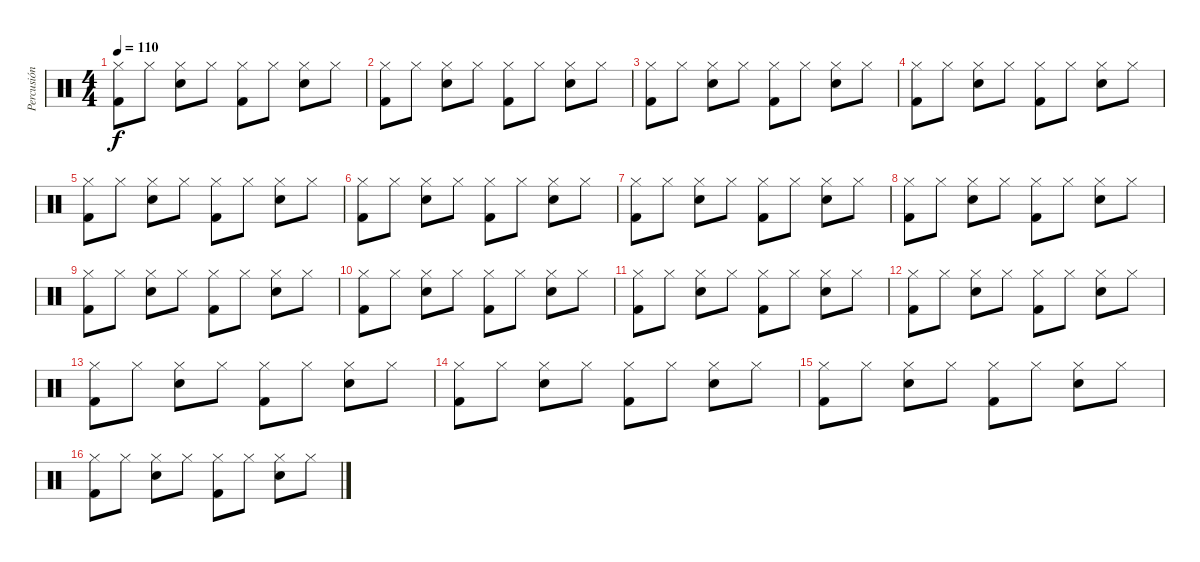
\track ("Percusión" "Percusión") {instrument percussion}
\staff {score}
\articulation defaults
\ts (4 4)
\tempo 110
\clef neutral
\ks c
("Kick (hit) 2" "Hi-Hat (closed)").8{dy f} "Hi-Hat (closed)".8 ("Snare (hit) 2" "Hi-Hat (closed)").8 "Hi-Hat (closed)".8 ("Kick (hit) 2" "Hi-Hat (closed)").8 "Hi-Hat (closed)".8 ("Snare (hit) 2" "Hi-Hat (closed)").8 "Hi-Hat (closed)".8 |
("Kick (hit) 2" "Hi-Hat (closed)").8 "Hi-Hat (closed)".8 ("Snare (hit) 2" "Hi-Hat (closed)").8 "Hi-Hat (closed)".8 ("Kick (hit) 2" "Hi-Hat (closed)").8 "Hi-Hat (closed)".8 ("Snare (hit) 2" "Hi-Hat (closed)").8 "Hi-Hat (closed)".8 |
("Kick (hit) 2" "Hi-Hat (closed)").8 "Hi-Hat (closed)".8 ("Snare (hit) 2" "Hi-Hat (closed)").8 "Hi-Hat (closed)".8 ("Kick (hit) 2" "Hi-Hat (closed)").8 "Hi-Hat (closed)".8 ("Snare (hit) 2" "Hi-Hat (closed)").8 "Hi-Hat (closed)".8 |
("Kick (hit) 2" "Hi-Hat (closed)").8 "Hi-Hat (closed)".8 ("Snare (hit) 2" "Hi-Hat (closed)").8 "Hi-Hat (closed)".8 ("Kick (hit) 2" "Hi-Hat (closed)").8 "Hi-Hat (closed)".8 ("Snare (hit) 2" "Hi-Hat (closed)").8 "Hi-Hat (closed)".8 |
("Kick (hit) 2" "Hi-Hat (closed)").8 "Hi-Hat (closed)".8 ("Snare (hit) 2" "Hi-Hat (closed)").8 "Hi-Hat (closed)".8 ("Kick (hit) 2" "Hi-Hat (closed)").8 "Hi-Hat (closed)".8 ("Snare (hit) 2" "Hi-Hat (closed)").8 "Hi-Hat (closed)".8 |
("Kick (hit) 2" "Hi-Hat (closed)").8 "Hi-Hat (closed)".8 ("Snare (hit) 2" "Hi-Hat (closed)").8 "Hi-Hat (closed)".8 ("Kick (hit) 2" "Hi-Hat (closed)").8 "Hi-Hat (closed)".8 ("Snare (hit) 2" "Hi-Hat (closed)").8 "Hi-Hat (closed)".8 |
("Kick (hit) 2" "Hi-Hat (closed)").8 "Hi-Hat (closed)".8 ("Snare (hit) 2" "Hi-Hat (closed)").8 "Hi-Hat (closed)".8 ("Kick (hit) 2" "Hi-Hat (closed)").8 "Hi-Hat (closed)".8 ("Snare (hit) 2" "Hi-Hat (closed)").8 "Hi-Hat (closed)".8 |
("Kick (hit) 2" "Hi-Hat (closed)").8 "Hi-Hat (closed)".8 ("Snare (hit) 2" "Hi-Hat (closed)").8 "Hi-Hat (closed)".8 ("Kick (hit) 2" "Hi-Hat (closed)").8 "Hi-Hat (closed)".8 ("Snare (hit) 2" "Hi-Hat (closed)").8 "Hi-Hat (closed)".8 |
("Kick (hit) 2" "Hi-Hat (closed)").8 "Hi-Hat (closed)".8 ("Snare (hit) 2" "Hi-Hat (closed)").8 "Hi-Hat (closed)".8 ("Kick (hit) 2" "Hi-Hat (closed)").8 "Hi-Hat (closed)".8 ("Snare (hit) 2" "Hi-Hat (closed)").8 "Hi-Hat (closed)".8 |
("Kick (hit) 2" "Hi-Hat (closed)").8 "Hi-Hat (closed)".8 ("Snare (hit) 2" "Hi-Hat (closed)").8 "Hi-Hat (closed)".8 ("Kick (hit) 2" "Hi-Hat (closed)").8 "Hi-Hat (closed)".8 ("Snare (hit) 2" "Hi-Hat (closed)").8 "Hi-Hat (closed)".8 |
("Kick (hit) 2" "Hi-Hat (closed)").8 "Hi-Hat (closed)".8 ("Snare (hit) 2" "Hi-Hat (closed)").8 "Hi-Hat (closed)".8 ("Kick (hit) 2" "Hi-Hat (closed)").8 "Hi-Hat (closed)".8 ("Snare (hit) 2" "Hi-Hat (closed)").8 "Hi-Hat (closed)".8 |
("Kick (hit) 2" "Hi-Hat (closed)").8 "Hi-Hat (closed)".8 ("Snare (hit) 2" "Hi-Hat (closed)").8 "Hi-Hat (closed)".8 ("Kick (hit) 2" "Hi-Hat (closed)").8 "Hi-Hat (closed)".8 ("Snare (hit) 2" "Hi-Hat (closed)").8 "Hi-Hat (closed)".8 |
("Kick (hit) 2" "Hi-Hat (closed)").8 "Hi-Hat (closed)".8 ("Snare (hit) 2" "Hi-Hat (closed)").8 "Hi-Hat (closed)".8 ("Kick (hit) 2" "Hi-Hat (closed)").8 "Hi-Hat (closed)".8 ("Snare (hit) 2" "Hi-Hat (closed)").8 "Hi-Hat (closed)".8 |
("Kick (hit) 2" "Hi-Hat (closed)").8 "Hi-Hat (closed)".8 ("Snare (hit) 2" "Hi-Hat (closed)").8 "Hi-Hat (closed)".8 ("Kick (hit) 2" "Hi-Hat (closed)").8 "Hi-Hat (closed)".8 ("Snare (hit) 2" "Hi-Hat (closed)").8 "Hi-Hat (closed)".8 |
("Kick (hit) 2" "Hi-Hat (closed)").8 "Hi-Hat (closed)".8 ("Snare (hit) 2" "Hi-Hat (closed)").8 "Hi-Hat (closed)".8 ("Kick (hit) 2" "Hi-Hat (closed)").8 "Hi-Hat (closed)".8 ("Snare (hit) 2" "Hi-Hat (closed)").8 "Hi-Hat (closed)".8 |
("Kick (hit) 2" "Hi-Hat (closed)").8 "Hi-Hat (closed)".8 ("Snare (hit) 2" "Hi-Hat (closed)").8 "Hi-Hat (closed)".8 ("Kick (hit) 2" "Hi-Hat (closed)").8 "Hi-Hat (closed)".8 ("Snare (hit) 2" "Hi-Hat (closed)").8 "Hi-Hat (closed)".8
